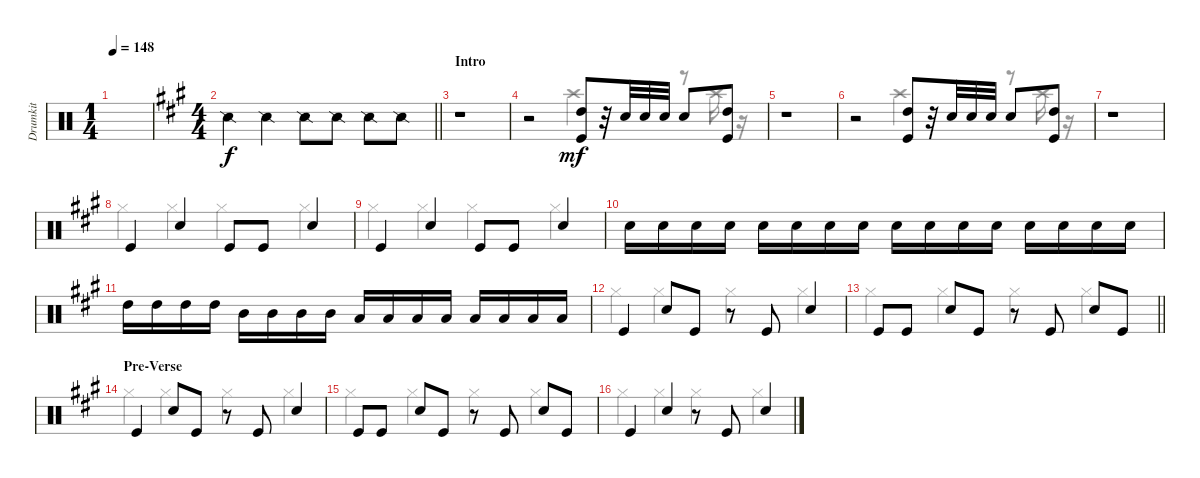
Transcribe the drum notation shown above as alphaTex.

\track ("Drumkit" "Drumkit") {instrument percussion}
\staff {score}
\articulation defaults
\voice
\ts (1 4)
\tempo 148
\clef neutral
\ks c
|
\ts (4 4)
\barLineRight lightlight
\ks a "Snare (side stick) 2".4 "Snare (side stick) 2".4 "Snare (side stick) 2".8 "Snare (side stick) 2".8 "Snare (side stick) 2".8 "Snare (side stick) 2".8
|
\section ("" "Intro")
r.1 |
r.2 ("Kick (hit)" "High Tom (hit)").8{dy mf} r.32 "Snare (hit) 2".32 "Snare (hit) 2".32 "Snare (hit) 2".32 "Snare (hit) 2".8 ("Kick (hit)" "High Tom (hit)").8 |
r.1 |
r.2 ("Kick (hit)" "High Tom (hit)").8 r.32 "Snare (hit) 2".32 "Snare (hit) 2".32 "Snare (hit) 2".32 "Snare (hit) 2".8 ("Kick (hit)" "High Tom (hit)").8 |
r.1 |
"Kick (hit)".4 "Snare (hit) 2".4 "Kick (hit)".8 "Kick (hit)".8 "Snare (hit) 2".4 |
"Kick (hit)".4 "Snare (hit) 2".4 "Kick (hit)".8 "Kick (hit)".8 "Snare (hit) 2".4 |
"Snare (hit) 2".16 "Snare (hit) 2".16 "Snare (hit) 2".16 "Snare (hit) 2".16 "Snare (hit) 2".16 "Snare (hit) 2".16 "Snare (hit) 2".16 "Snare (hit) 2".16 "Snare (hit) 2".16 "Snare (hit) 2".16 "Snare (hit) 2".16 "Snare (hit) 2".16 "Snare (hit) 2".16 "Snare (hit) 2".16 "Snare (hit) 2".16 "Snare (hit) 2".16 |
"High Tom (hit)".16 "High Tom (hit)".16 "High Tom (hit)".16 "High Tom (hit)".16 "Mid Tom (hit)".16 "Mid Tom (hit)".16 "Mid Tom (hit)".16 "Mid Tom (hit)".16 "Low Tom (hit)".16 "Low Tom (hit)".16 "Low Tom (hit)".16 "Low Tom (hit)".16 "Low Floor Tom (hit)".16 "Low Floor Tom (hit)".16 "Low Floor Tom (hit)".16 "Low Floor Tom (hit)".16 |
"Kick (hit)".4 "Snare (hit) 2".8 "Kick (hit)".8 r.8 "Kick (hit)".8 "Snare (hit) 2".4 |
\barLineRight lightlight "Kick (hit)".8 "Kick (hit)".8 "Snare (hit) 2".8 "Kick (hit)".8
r.8 "Kick (hit)".8 "Snare (hit) 2".8 "Kick (hit)".8 |
\section ("" "Pre-Verse")
"Kick (hit)".4 "Snare (hit) 2".8 "Kick (hit)".8 r.8 "Kick (hit)".8 "Snare (hit) 2".4 |
"Kick (hit)".8 "Kick (hit)".8 "Snare (hit) 2".8 "Kick (hit)".8 r.8 "Kick (hit)".8 "Snare (hit) 2".8 "Kick (hit)".8 |
"Kick (hit)".4 "Snare (hit) 2".4 r.8 "Kick (hit)".8 "Snare (hit) 2".4
\voice
\clef neutral
\ottava regular
\simile none
\ks c
|
\barLineRight lightlight
\ks a
|
|
r.2 "Crash high (hit)".4 r.8 "Crash high (hit)".16 r.16 |
|
r.2 "Crash high (hit)".4 r.8 "Crash high (hit)".16 r.16 |
|
"Hi-Hat (closed)".4 "Hi-Hat (closed)".4 "Hi-Hat (closed)".4 "Hi-Hat (closed)".4 |
"Hi-Hat (closed)".4 "Hi-Hat (closed)".4 "Hi-Hat (closed)".4 "Hi-Hat (closed)".4 |
|
|
"Hi-Hat (closed)".4 "Hi-Hat (closed)".4 "Hi-Hat (closed)".4 "Hi-Hat (closed)".4 |
\barLineRight lightlight "Hi-Hat (closed)".4 "Hi-Hat (closed)".4 "Hi-Hat (closed)".4 "Hi-Hat (closed)".4
|
"Hi-Hat (closed)".4 "Hi-Hat (closed)".4 "Hi-Hat (closed)".4 "Hi-Hat (closed)".4 |
"Hi-Hat (closed)".4 "Hi-Hat (closed)".4 "Hi-Hat (closed)".4 "Hi-Hat (closed)".4 |
"Hi-Hat (closed)".4 "Hi-Hat (closed)".4 "Hi-Hat (closed)".4 "Hi-Hat (closed)".4
